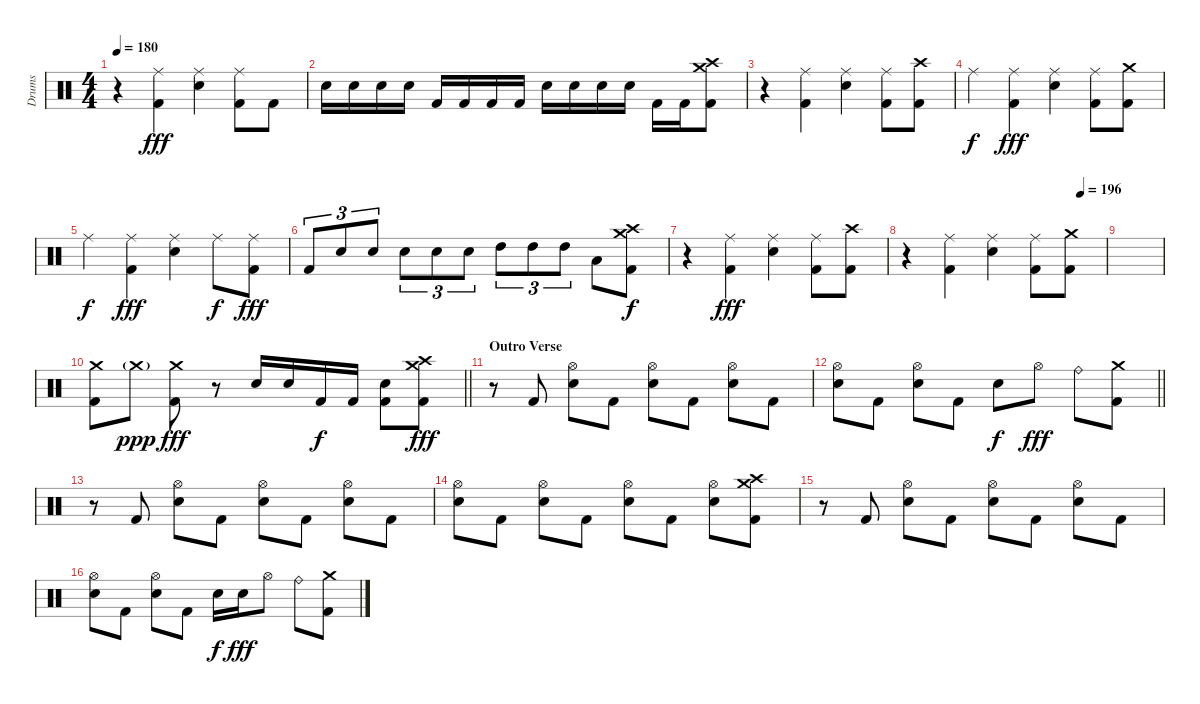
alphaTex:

\track ("Drums" "Drums") {instrument percussion}
\staff {score}
\articulation defaults
\ts (4 4)
\tempo 180
\clef neutral
\ks c
r.4{dy fff} ("Ride (middle)" "Kick (hit) 2").4 ("Ride (middle)" "Electric Snare (hit)").4 ("Ride (middle)" "Kick (hit) 2").8 "Kick (hit) 2".8 |
"Electric Snare (hit)".16 "Electric Snare (hit)".16 "Electric Snare (hit)".16 "Electric Snare (hit)".16 "Kick (hit) 2".16 "Kick (hit) 2".16 "Kick (hit) 2".16 "Kick (hit) 2".16 "Electric Snare (hit)".16 "Electric Snare (hit)".16 "Electric Snare (hit)".16 "Electric Snare (hit)".16 "Kick (hit) 2".16 "Kick (hit) 2".16 ("Crash medium (hit)" "Crash high (hit)" "Kick (hit) 2").8 |
r.4 ("Ride (middle)" "Kick (hit) 2").4 ("Ride (middle)" "Electric Snare (hit)").4 ("Ride (middle)" "Kick (hit) 2").8 ("Crash high (hit)" "Kick (hit) 2").8 |
"Ride (middle)".4{dy f} ("Ride (middle)" "Kick (hit) 2").4{dy fff} ("Ride (middle)" "Electric Snare (hit)").4 ("Ride (middle)" "Kick (hit) 2").8 ("Crash medium (hit)" "Kick (hit) 2").8 |
"Ride (middle)".4{dy f} ("Ride (middle)" "Kick (hit) 2").4{dy fff} ("Ride (middle)" "Electric Snare (hit)").4 "Ride (middle)".8{dy f} ("Ride (middle)" "Kick (hit) 2").8{dy fff} |
"Kick (hit) 2".8{tu (3 2)} "Electric Snare (hit)".8{tu (3 2)} "Electric Snare (hit)".8{tu (3 2)} "Electric Snare (hit)".8{tu (3 2)} "Electric Snare (hit)".8{tu (3 2)} "Electric Snare (hit)".8{tu (3 2)} "High Tom (hit)".8{tu (3 2)} "High Tom (hit)".8{tu (3 2)} "High Tom (hit)".8{tu (3 2)} "Low Tom (hit)".8 ("Crash medium (hit)" "Crash high (hit)" "Kick (hit) 2").8{dy f} |
r.4 ("Ride (middle)" "Kick (hit) 2").4{dy fff} ("Ride (middle)" "Electric Snare (hit)").4 ("Ride (middle)" "Kick (hit) 2").8 ("Crash high (hit)" "Kick (hit) 2").8 |
\tempo (196 0.875)
r.4 ("Ride (middle)" "Kick (hit) 2").4 ("Ride (middle)" "Electric Snare (hit)").4 ("Ride (middle)" "Kick (hit) 2").8 ("Crash medium (hit)" "Kick (hit) 2").8 |
|
\barLineRight lightlight
("Crash medium (hit)" "Kick (hit) 2").8 "Crash medium (hit)"{g}.8{dy ppp} ("Crash medium (hit)" "Kick (hit) 2").8{dy fff} r.8 "Electric Snare (hit)".16 "Electric Snare (hit)".16 "Kick (hit) 2".16{dy f} "Kick (hit) 2".16 ("Electric Snare (hit)" "Kick (hit) 2").8 ("Crash medium (hit)" "Crash high (hit)" "Kick (hit) 2").8{dy fff} |
\section ("" "Outro Verse")
r.8 "Kick (hit) 2".8 ("Hi-Hat (open)" "Electric Snare (hit)").8 "Kick (hit) 2".8 ("Hi-Hat (open)" "Electric Snare (hit)").8 "Kick (hit) 2".8 ("Hi-Hat (open)" "Electric Snare (hit)").8 "Kick (hit) 2".8 |
\barLineRight lightlight
("Hi-Hat (open)" "Electric Snare (hit)").8 "Kick (hit) 2".8 ("Hi-Hat (open)" "Electric Snare (hit)").8 "Kick (hit) 2".8 "Electric Snare (hit)".8{dy f} "Hi-Hat (open)".8{dy fff} "Ride (bell)".8 ("Crash medium (hit)" "Kick (hit) 2").8 |
r.8 "Kick (hit) 2".8 ("Hi-Hat (open)" "Electric Snare (hit)").8 "Kick (hit) 2".8 ("Hi-Hat (open)" "Electric Snare (hit)").8 "Kick (hit) 2".8 ("Hi-Hat (open)" "Electric Snare (hit)").8 "Kick (hit) 2".8 |
("Hi-Hat (open)" "Electric Snare (hit)").8 "Kick (hit) 2".8 ("Hi-Hat (open)" "Electric Snare (hit)").8 "Kick (hit) 2".8 ("Hi-Hat (open)" "Electric Snare (hit)").8 "Kick (hit) 2".8 ("Hi-Hat (open)" "Electric Snare (hit)").8 ("Crash medium (hit)" "Crash high (hit)" "Kick (hit) 2").8 |
r.8 "Kick (hit) 2".8 ("Hi-Hat (open)" "Electric Snare (hit)").8 "Kick (hit) 2".8 ("Hi-Hat (open)" "Electric Snare (hit)").8 "Kick (hit) 2".8 ("Hi-Hat (open)" "Electric Snare (hit)").8 "Kick (hit) 2".8 |
("Hi-Hat (open)" "Electric Snare (hit)").8 "Kick (hit) 2".8 ("Hi-Hat (open)" "Electric Snare (hit)").8 "Kick (hit) 2".8 "Electric Snare (hit)".16{dy f} "Electric Snare (hit)".16{dy fff} "Hi-Hat (open)".8 "Ride (bell)".8 ("Crash medium (hit)" "Kick (hit) 2").8
